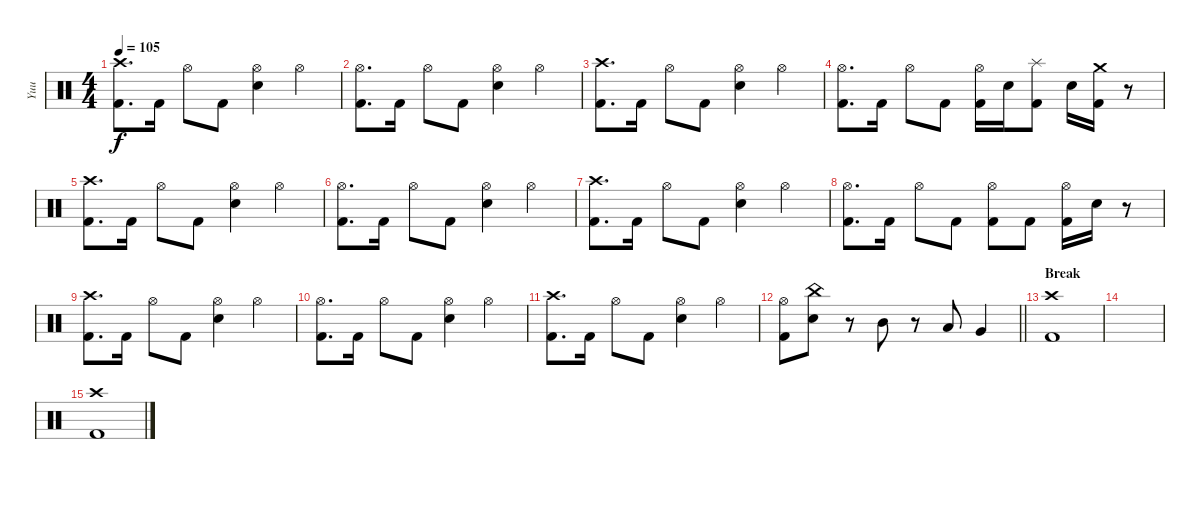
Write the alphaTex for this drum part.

\track ("Yuu" "Yuu") {instrument percussion}
\staff {score}
\articulation defaults
\ts (4 4)
\tempo 105
\clef neutral
\ks c
("Crash high (hit)" "Kick (hit) 2").8{d dy f} "Kick (hit) 2".16 "Hi-Hat (open)".8 "Kick (hit) 2".8 ("Hi-Hat (open)" "Electric Snare (hit)").4 "Hi-Hat (open)".4 |
("Hi-Hat (open)" "Kick (hit) 2").8{d} "Kick (hit) 2".16 "Hi-Hat (open)".8 "Kick (hit) 2".8 ("Hi-Hat (open)" "Electric Snare (hit)").4 "Hi-Hat (open)".4 |
("Crash high (hit)" "Kick (hit) 2").8{d} "Kick (hit) 2".16 "Hi-Hat (open)".8 "Kick (hit) 2".8 ("Hi-Hat (open)" "Electric Snare (hit)").4 "Hi-Hat (open)".4 |
("Hi-Hat (open)" "Kick (hit) 2").8{d} "Kick (hit) 2".16 "Hi-Hat (open)".8 "Kick (hit) 2".8 ("Hi-Hat (open)" "Kick (hit) 2").16 "Electric Snare (hit)".16 ("Splash (hit)" "Kick (hit) 2").8 "Electric Snare (hit)".16 ("Crash medium (hit)" "Kick (hit) 2").16 r.8 |
("Crash high (hit)" "Kick (hit) 2").8{d} "Kick (hit) 2".16 "Hi-Hat (open)".8 "Kick (hit) 2".8 ("Hi-Hat (open)" "Electric Snare (hit)").4 "Hi-Hat (open)".4 |
("Hi-Hat (open)" "Kick (hit) 2").8{d} "Kick (hit) 2".16 "Hi-Hat (open)".8 "Kick (hit) 2".8 ("Hi-Hat (open)" "Electric Snare (hit)").4 "Hi-Hat (open)".4 |
("Crash high (hit)" "Kick (hit) 2").8{d} "Kick (hit) 2".16 "Hi-Hat (open)".8 "Kick (hit) 2".8 ("Hi-Hat (open)" "Electric Snare (hit)").4 "Hi-Hat (open)".4 |
("Hi-Hat (open)" "Kick (hit) 2").8{d} "Kick (hit) 2".16 "Hi-Hat (open)".8 "Kick (hit) 2".8 ("Hi-Hat (open)" "Kick (hit) 2").8 "Kick (hit) 2".8 ("Hi-Hat (open)" "Kick (hit) 2").16 "Electric Snare (hit)".16 r.8 |
("Crash high (hit)" "Kick (hit) 2").8{d} "Kick (hit) 2".16 "Hi-Hat (open)".8 "Kick (hit) 2".8 ("Hi-Hat (open)" "Electric Snare (hit)").4 "Hi-Hat (open)".4 |
("Hi-Hat (open)" "Kick (hit) 2").8{d} "Kick (hit) 2".16 "Hi-Hat (open)".8 "Kick (hit) 2".8 ("Hi-Hat (open)" "Electric Snare (hit)").4 "Hi-Hat (open)".4 |
("Crash high (hit)" "Kick (hit) 2").8{d} "Kick (hit) 2".16 "Hi-Hat (open)".8 "Kick (hit) 2".8 ("Hi-Hat (open)" "Electric Snare (hit)").4 "Hi-Hat (open)".4 |
\barLineRight lightlight
("Hi-Hat (open)" "Kick (hit) 2").8 ("China (hit)" "Electric Snare (hit)").8 r.8 "Mid Tom (hit)".8 r.8 "Low Tom (hit)".8 "Very Low Tom (hit)".4 |
\section ("" "Break")
("Crash high (hit)" "Kick (hit) 2").1 |
|
("Crash high (hit)" "Kick (hit) 2").1
